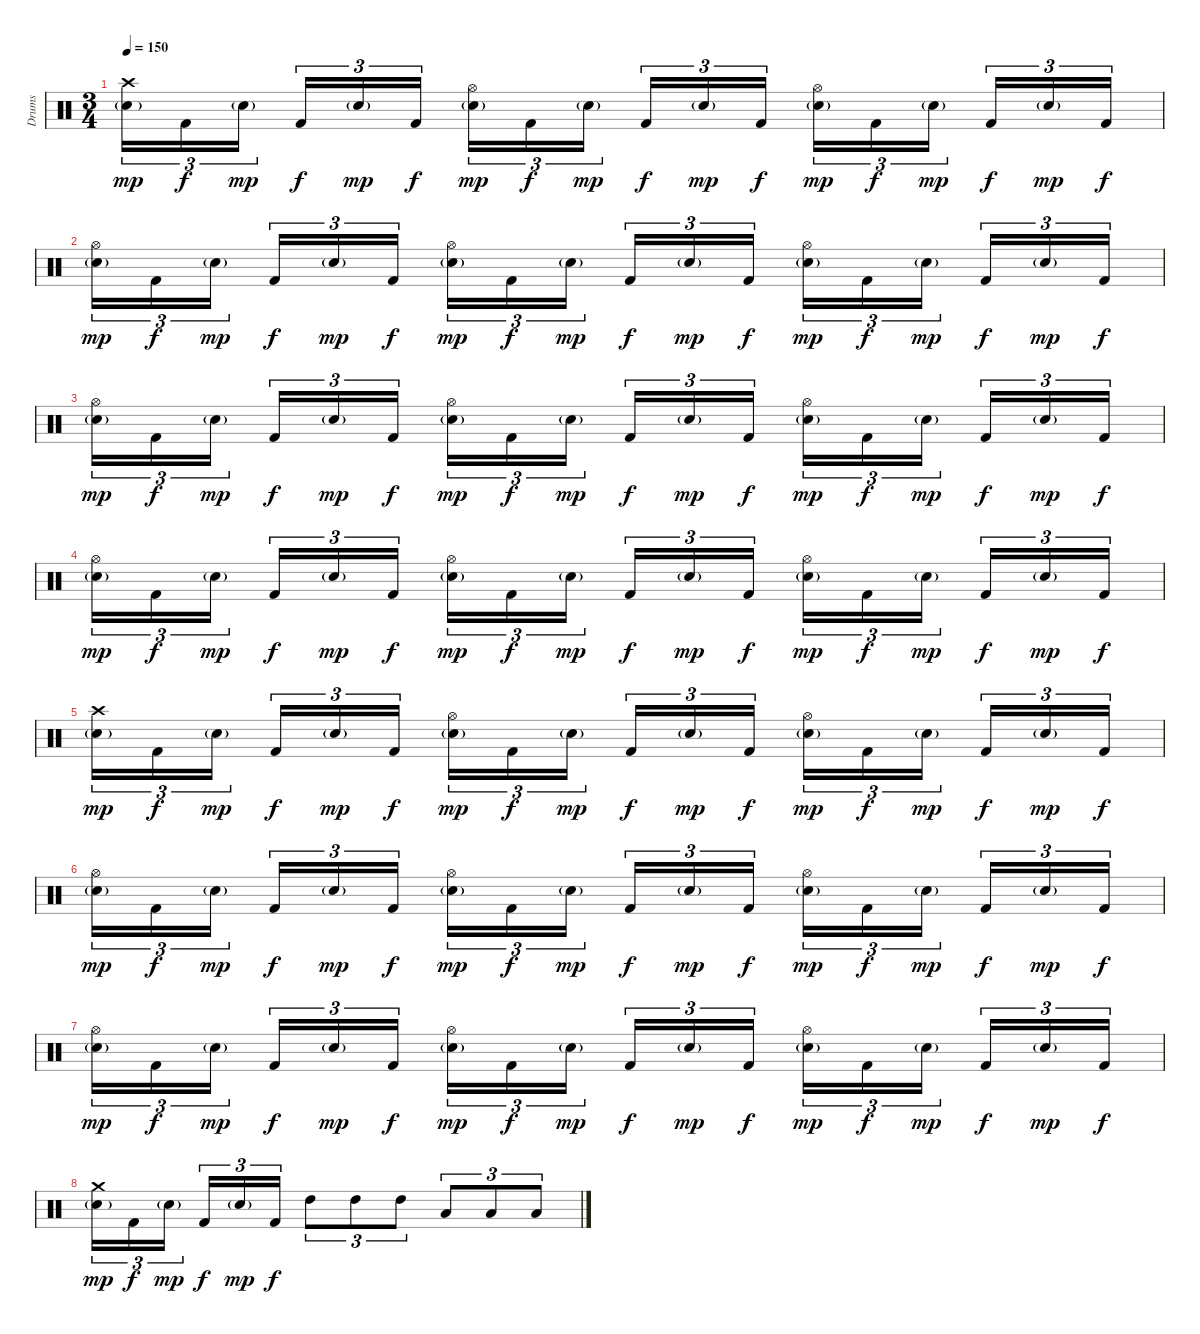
\track ("Drums" "Drums") {instrument percussion}
\staff {score}
\articulation defaults
\ts (3 4)
\tempo 150
\clef neutral
\ks c
("Electric Snare (hit)"{g} "Crash high (hit)").16{tu (3 2) dy mp} "Kick (hit) 2".16{tu (3 2) dy f} "Electric Snare (hit)"{g}.16{tu (3 2) dy mp beam splitsecondary} "Kick (hit) 2".16{tu (3 2) dy f} "Electric Snare (hit)"{g}.16{tu (3 2) dy mp} "Kick (hit) 2".16{tu (3 2) dy f} ("Electric Snare (hit)"{g} "Hi-Hat (open)").16{tu (3 2) dy mp} "Kick (hit) 2".16{tu (3 2) dy f} "Electric Snare (hit)"{g}.16{tu (3 2) dy mp beam splitsecondary} "Kick (hit) 2".16{tu (3 2) dy f} "Electric Snare (hit)"{g}.16{tu (3 2) dy mp} "Kick (hit) 2".16{tu (3 2) dy f} ("Electric Snare (hit)"{g} "Hi-Hat (open)").16{tu (3 2) dy mp} "Kick (hit) 2".16{tu (3 2) dy f} "Electric Snare (hit)"{g}.16{tu (3 2) dy mp beam splitsecondary} "Kick (hit) 2".16{tu (3 2) dy f} "Electric Snare (hit)"{g}.16{tu (3 2) dy mp} "Kick (hit) 2".16{tu (3 2) dy f} |
("Electric Snare (hit)"{g} "Hi-Hat (open)").16{tu (3 2) dy mp} "Kick (hit) 2".16{tu (3 2) dy f} "Electric Snare (hit)"{g}.16{tu (3 2) dy mp beam splitsecondary} "Kick (hit) 2".16{tu (3 2) dy f} "Electric Snare (hit)"{g}.16{tu (3 2) dy mp} "Kick (hit) 2".16{tu (3 2) dy f} ("Electric Snare (hit)"{g} "Hi-Hat (open)").16{tu (3 2) dy mp} "Kick (hit) 2".16{tu (3 2) dy f} "Electric Snare (hit)"{g}.16{tu (3 2) dy mp beam splitsecondary} "Kick (hit) 2".16{tu (3 2) dy f} "Electric Snare (hit)"{g}.16{tu (3 2) dy mp} "Kick (hit) 2".16{tu (3 2) dy f} ("Electric Snare (hit)"{g} "Hi-Hat (open)").16{tu (3 2) dy mp} "Kick (hit) 2".16{tu (3 2) dy f} "Electric Snare (hit)"{g}.16{tu (3 2) dy mp beam splitsecondary} "Kick (hit) 2".16{tu (3 2) dy f} "Electric Snare (hit)"{g}.16{tu (3 2) dy mp} "Kick (hit) 2".16{tu (3 2) dy f} |
("Electric Snare (hit)"{g} "Hi-Hat (open)").16{tu (3 2) dy mp} "Kick (hit) 2".16{tu (3 2) dy f} "Electric Snare (hit)"{g}.16{tu (3 2) dy mp beam splitsecondary} "Kick (hit) 2".16{tu (3 2) dy f} "Electric Snare (hit)"{g}.16{tu (3 2) dy mp} "Kick (hit) 2".16{tu (3 2) dy f} ("Electric Snare (hit)"{g} "Hi-Hat (open)").16{tu (3 2) dy mp} "Kick (hit) 2".16{tu (3 2) dy f} "Electric Snare (hit)"{g}.16{tu (3 2) dy mp beam splitsecondary} "Kick (hit) 2".16{tu (3 2) dy f} "Electric Snare (hit)"{g}.16{tu (3 2) dy mp} "Kick (hit) 2".16{tu (3 2) dy f} ("Electric Snare (hit)"{g} "Hi-Hat (open)").16{tu (3 2) dy mp} "Kick (hit) 2".16{tu (3 2) dy f} "Electric Snare (hit)"{g}.16{tu (3 2) dy mp beam splitsecondary} "Kick (hit) 2".16{tu (3 2) dy f} "Electric Snare (hit)"{g}.16{tu (3 2) dy mp} "Kick (hit) 2".16{tu (3 2) dy f} |
("Electric Snare (hit)"{g} "Hi-Hat (open)").16{tu (3 2) dy mp} "Kick (hit) 2".16{tu (3 2) dy f} "Electric Snare (hit)"{g}.16{tu (3 2) dy mp beam splitsecondary} "Kick (hit) 2".16{tu (3 2) dy f} "Electric Snare (hit)"{g}.16{tu (3 2) dy mp} "Kick (hit) 2".16{tu (3 2) dy f} ("Electric Snare (hit)"{g} "Hi-Hat (open)").16{tu (3 2) dy mp} "Kick (hit) 2".16{tu (3 2) dy f} "Electric Snare (hit)"{g}.16{tu (3 2) dy mp beam splitsecondary} "Kick (hit) 2".16{tu (3 2) dy f} "Electric Snare (hit)"{g}.16{tu (3 2) dy mp} "Kick (hit) 2".16{tu (3 2) dy f} ("Electric Snare (hit)"{g} "Hi-Hat (open)").16{tu (3 2) dy mp} "Kick (hit) 2".16{tu (3 2) dy f} "Electric Snare (hit)"{g}.16{tu (3 2) dy mp beam splitsecondary} "Kick (hit) 2".16{tu (3 2) dy f} "Electric Snare (hit)"{g}.16{tu (3 2) dy mp} "Kick (hit) 2".16{tu (3 2) dy f} |
("Electric Snare (hit)"{g} "Crash high (hit)").16{tu (3 2) dy mp} "Kick (hit) 2".16{tu (3 2) dy f} "Electric Snare (hit)"{g}.16{tu (3 2) dy mp beam splitsecondary} "Kick (hit) 2".16{tu (3 2) dy f} "Electric Snare (hit)"{g}.16{tu (3 2) dy mp} "Kick (hit) 2".16{tu (3 2) dy f} ("Electric Snare (hit)"{g} "Hi-Hat (open)").16{tu (3 2) dy mp} "Kick (hit) 2".16{tu (3 2) dy f} "Electric Snare (hit)"{g}.16{tu (3 2) dy mp beam splitsecondary} "Kick (hit) 2".16{tu (3 2) dy f} "Electric Snare (hit)"{g}.16{tu (3 2) dy mp} "Kick (hit) 2".16{tu (3 2) dy f} ("Electric Snare (hit)"{g} "Hi-Hat (open)").16{tu (3 2) dy mp} "Kick (hit) 2".16{tu (3 2) dy f} "Electric Snare (hit)"{g}.16{tu (3 2) dy mp beam splitsecondary} "Kick (hit) 2".16{tu (3 2) dy f} "Electric Snare (hit)"{g}.16{tu (3 2) dy mp} "Kick (hit) 2".16{tu (3 2) dy f} |
("Electric Snare (hit)"{g} "Hi-Hat (open)").16{tu (3 2) dy mp} "Kick (hit) 2".16{tu (3 2) dy f} "Electric Snare (hit)"{g}.16{tu (3 2) dy mp beam splitsecondary} "Kick (hit) 2".16{tu (3 2) dy f} "Electric Snare (hit)"{g}.16{tu (3 2) dy mp} "Kick (hit) 2".16{tu (3 2) dy f} ("Electric Snare (hit)"{g} "Hi-Hat (open)").16{tu (3 2) dy mp} "Kick (hit) 2".16{tu (3 2) dy f} "Electric Snare (hit)"{g}.16{tu (3 2) dy mp beam splitsecondary} "Kick (hit) 2".16{tu (3 2) dy f} "Electric Snare (hit)"{g}.16{tu (3 2) dy mp} "Kick (hit) 2".16{tu (3 2) dy f} ("Electric Snare (hit)"{g} "Hi-Hat (open)").16{tu (3 2) dy mp} "Kick (hit) 2".16{tu (3 2) dy f} "Electric Snare (hit)"{g}.16{tu (3 2) dy mp beam splitsecondary} "Kick (hit) 2".16{tu (3 2) dy f} "Electric Snare (hit)"{g}.16{tu (3 2) dy mp} "Kick (hit) 2".16{tu (3 2) dy f} |
("Electric Snare (hit)"{g} "Hi-Hat (open)").16{tu (3 2) dy mp} "Kick (hit) 2".16{tu (3 2) dy f} "Electric Snare (hit)"{g}.16{tu (3 2) dy mp beam splitsecondary} "Kick (hit) 2".16{tu (3 2) dy f} "Electric Snare (hit)"{g}.16{tu (3 2) dy mp} "Kick (hit) 2".16{tu (3 2) dy f} ("Electric Snare (hit)"{g} "Hi-Hat (open)").16{tu (3 2) dy mp} "Kick (hit) 2".16{tu (3 2) dy f} "Electric Snare (hit)"{g}.16{tu (3 2) dy mp beam splitsecondary} "Kick (hit) 2".16{tu (3 2) dy f} "Electric Snare (hit)"{g}.16{tu (3 2) dy mp} "Kick (hit) 2".16{tu (3 2) dy f} ("Electric Snare (hit)"{g} "Hi-Hat (open)").16{tu (3 2) dy mp} "Kick (hit) 2".16{tu (3 2) dy f} "Electric Snare (hit)"{g}.16{tu (3 2) dy mp beam splitsecondary} "Kick (hit) 2".16{tu (3 2) dy f} "Electric Snare (hit)"{g}.16{tu (3 2) dy mp} "Kick (hit) 2".16{tu (3 2) dy f} |
("Electric Snare (hit)"{g} "Crash medium (hit)").16{tu (3 2) dy mp} "Kick (hit) 2".16{tu (3 2) dy f} "Electric Snare (hit)"{g}.16{tu (3 2) dy mp beam splitsecondary} "Kick (hit) 2".16{tu (3 2) dy f} "Electric Snare (hit)"{g}.16{tu (3 2) dy mp} "Kick (hit) 2".16{tu (3 2) dy f} "High Tom (hit)".8{tu (3 2)} "High Tom (hit)".8{tu (3 2)} "High Tom (hit)".8{tu (3 2)} "Low Tom (hit)".8{tu (3 2)} "Low Tom (hit)".8{tu (3 2)} "Low Tom (hit)".8{tu (3 2)}
